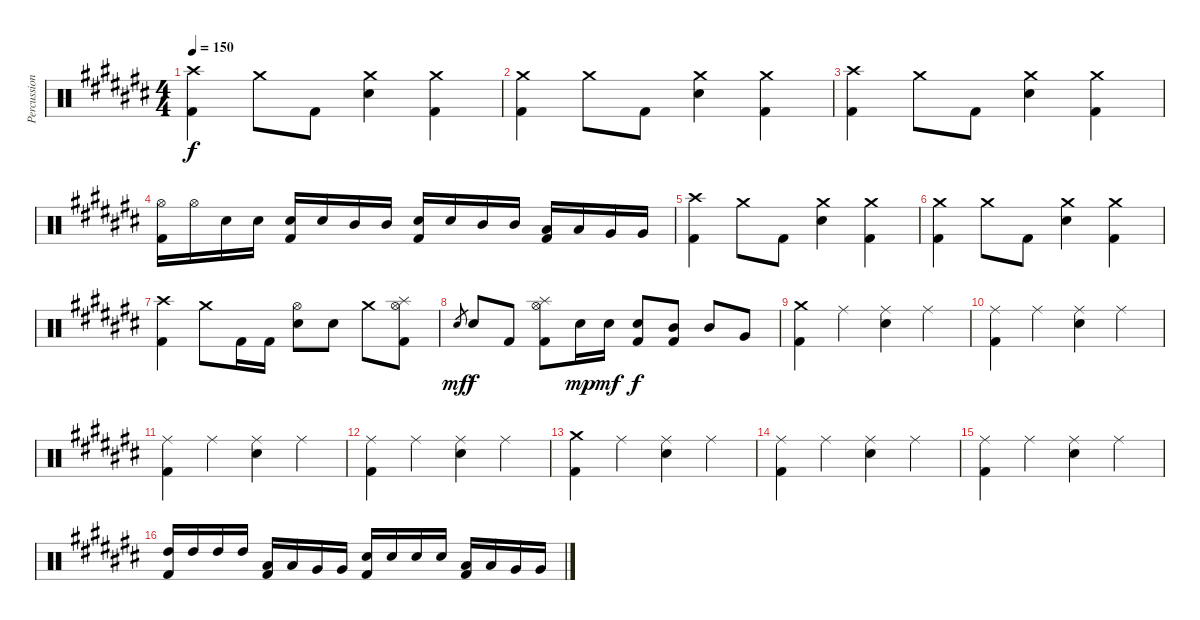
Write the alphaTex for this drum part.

\track ("Percussion" "Percussion") {instrument percussion}
\staff {score}
\articulation defaults
\ts (4 4)
\tempo 150
\clef neutral
\ks c#
("Crash high (hit)" "Kick (hit) 2").4{dy f} "Crash medium (hit)".8 "Kick (hit) 2".8 ("Crash medium (hit)" "Electric Snare (hit)").4 ("Crash medium (hit)" "Kick (hit) 2").4 |
("Crash medium (hit)" "Kick (hit) 2").4 "Crash medium (hit)".8 "Kick (hit) 2".8 ("Crash medium (hit)" "Electric Snare (hit)").4 ("Crash medium (hit)" "Kick (hit) 2").4 |
("Crash high (hit)" "Kick (hit) 2").4 "Crash medium (hit)".8 "Kick (hit) 2".8 ("Crash medium (hit)" "Electric Snare (hit)").4 ("Crash medium (hit)" "Kick (hit) 2").4 |
("Hi-Hat (open)" "Kick (hit) 2").16 "Hi-Hat (open)".16 "Electric Snare (hit)".16 "Electric Snare (hit)".16 ("Electric Snare (hit)" "Kick (hit) 2").16 "Electric Snare (hit)".16 "Mid Tom (hit)".16 "Mid Tom (hit)".16 ("Electric Snare (hit)" "Kick (hit) 2").16 "Electric Snare (hit)".16 "Mid Tom (hit)".16 "Mid Tom (hit)".16 ("Low Tom (hit)" "Kick (hit) 2").16 "Low Tom (hit)".16 "Very Low Tom (hit)".16 "Very Low Tom (hit)".16 |
("Crash high (hit)" "Kick (hit) 2").4 "Crash medium (hit)".8 "Kick (hit) 2".8 ("Crash medium (hit)" "Electric Snare (hit)").4 ("Crash medium (hit)" "Kick (hit) 2").4 |
("Crash medium (hit)" "Kick (hit) 2").4 "Crash medium (hit)".8 "Kick (hit) 2".8 ("Crash medium (hit)" "Electric Snare (hit)").4 ("Crash medium (hit)" "Kick (hit) 2").4 |
("Crash high (hit)" "Kick (hit) 2").4 "Crash medium (hit)".8 "Kick (hit) 2".16 "Kick (hit) 2".16 ("Hi-Hat (open)" "Electric Snare (hit)").8 "Electric Snare (hit)".8 "Crash medium (hit)".8 ("Hi-Hat (open)" "Splash (hit)" "Kick (hit) 2").8 |
"Electric Snare (hit)".8{gr dy mf} "Electric Snare (hit)".8{dy f} "Kick (hit) 2".8 ("Hi-Hat (open)" "Splash (hit)" "Kick (hit) 2").8 "Electric Snare (hit)".16{dy mp} "Electric Snare (hit)".16{dy mf} ("Electric Snare (hit)" "Kick (hit) 2").8{dy f} ("Mid Tom (hit)" "Kick (hit) 2").8 "Mid Tom (hit)".8 "Very Low Tom (hit)".8 |
("Crash medium (hit)" "Kick (hit) 2").4 "Ride (middle)".4 ("Ride (middle)" "Electric Snare (hit)").4 "Ride (middle)".4 |
("Ride (middle)" "Kick (hit) 2").4 "Ride (middle)".4 ("Ride (middle)" "Electric Snare (hit)").4 "Ride (middle)".4 |
("Ride (middle)" "Kick (hit) 2").4 "Ride (middle)".4 ("Ride (middle)" "Electric Snare (hit)").4 "Ride (middle)".4 |
("Ride (middle)" "Kick (hit) 2").4 "Ride (middle)".4 ("Ride (middle)" "Electric Snare (hit)").4 "Ride (middle)".4 |
("Crash medium (hit)" "Kick (hit) 2").4 "Ride (middle)".4 ("Ride (middle)" "Electric Snare (hit)").4 "Ride (middle)".4 |
("Ride (middle)" "Kick (hit) 2").4 "Ride (middle)".4 ("Ride (middle)" "Electric Snare (hit)").4 "Ride (middle)".4 |
("Ride (middle)" "Kick (hit) 2").4 "Ride (middle)".4 ("Ride (middle)" "Electric Snare (hit)").4 "Ride (middle)".4 |
("High Tom (hit)" "Kick (hit) 2").16 "High Tom (hit)".16 "High Tom (hit)".16 "High Tom (hit)".16 ("Low Tom (hit)" "Kick (hit) 2").16 "Low Tom (hit)".16 "Very Low Tom (hit)".16 "Very Low Tom (hit)".16 ("Electric Snare (hit)" "Kick (hit) 2").16 "Electric Snare (hit)".16 "Electric Snare (hit)".16 "Electric Snare (hit)".16 ("Low Tom (hit)" "Kick (hit) 2").16 "Low Tom (hit)".16 "Very Low Tom (hit)".16 "Very Low Tom (hit)".16
